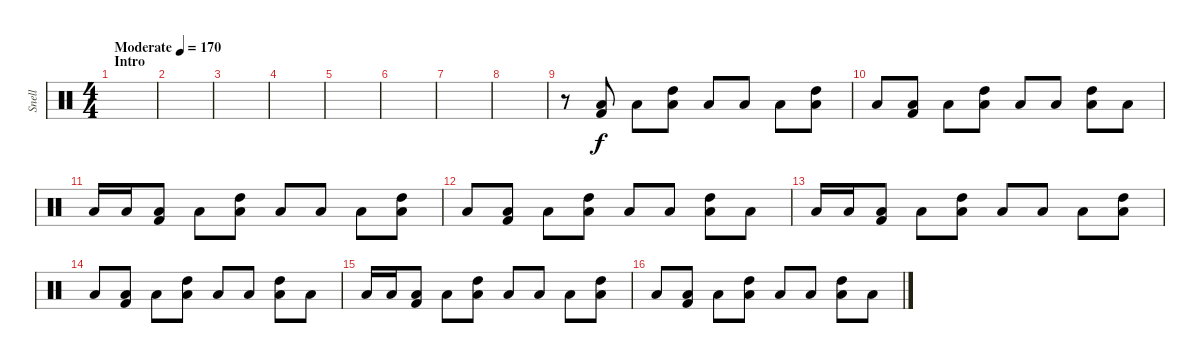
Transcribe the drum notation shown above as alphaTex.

\track ("Snell" "Snell") {instrument percussion}
\staff {score}
\articulation defaults
\ts (4 4)
\section ("" "Intro")
\tempo (170 "Moderate")
\clef neutral
\ks c
|
|
|
|
|
|
|
|
r.8 ("Low Tom (hit)" "Kick (hit) 2").8 "Low Tom (hit)".8 ("High Tom (hit)" "Low Tom (hit)").8 "Low Tom (hit)".8 "Low Tom (hit)".8 "Low Tom (hit)".8 ("High Tom (hit)" "Low Tom (hit)").8 |
"Low Tom (hit)".8 ("Low Tom (hit)" "Kick (hit) 2").8 "Low Tom (hit)".8 ("High Tom (hit)" "Low Tom (hit)").8 "Low Tom (hit)".8 "Low Tom (hit)".8 ("High Tom (hit)" "Low Tom (hit)").8 "Low Tom (hit)".8 |
"Low Tom (hit)".16 "Low Tom (hit)".16 ("Low Tom (hit)" "Kick (hit) 2").8 "Low Tom (hit)".8 ("High Tom (hit)" "Low Tom (hit)").8 "Low Tom (hit)".8 "Low Tom (hit)".8 "Low Tom (hit)".8 ("High Tom (hit)" "Low Tom (hit)").8 |
"Low Tom (hit)".8 ("Low Tom (hit)" "Kick (hit) 2").8 "Low Tom (hit)".8 ("High Tom (hit)" "Low Tom (hit)").8 "Low Tom (hit)".8 "Low Tom (hit)".8 ("High Tom (hit)" "Low Tom (hit)").8 "Low Tom (hit)".8 |
"Low Tom (hit)".16 "Low Tom (hit)".16 ("Low Tom (hit)" "Kick (hit) 2").8 "Low Tom (hit)".8 ("High Tom (hit)" "Low Tom (hit)").8 "Low Tom (hit)".8 "Low Tom (hit)".8 "Low Tom (hit)".8 ("High Tom (hit)" "Low Tom (hit)").8 |
"Low Tom (hit)".8 ("Low Tom (hit)" "Kick (hit) 2").8 "Low Tom (hit)".8 ("High Tom (hit)" "Low Tom (hit)").8 "Low Tom (hit)".8 "Low Tom (hit)".8 ("High Tom (hit)" "Low Tom (hit)").8 "Low Tom (hit)".8 |
"Low Tom (hit)".16 "Low Tom (hit)".16 ("Low Tom (hit)" "Kick (hit) 2").8 "Low Tom (hit)".8 ("High Tom (hit)" "Low Tom (hit)").8 "Low Tom (hit)".8 "Low Tom (hit)".8 "Low Tom (hit)".8 ("High Tom (hit)" "Low Tom (hit)").8 |
"Low Tom (hit)".8 ("Low Tom (hit)" "Kick (hit) 2").8 "Low Tom (hit)".8 ("High Tom (hit)" "Low Tom (hit)").8 "Low Tom (hit)".8 "Low Tom (hit)".8 ("High Tom (hit)" "Low Tom (hit)").8 "Low Tom (hit)".8
